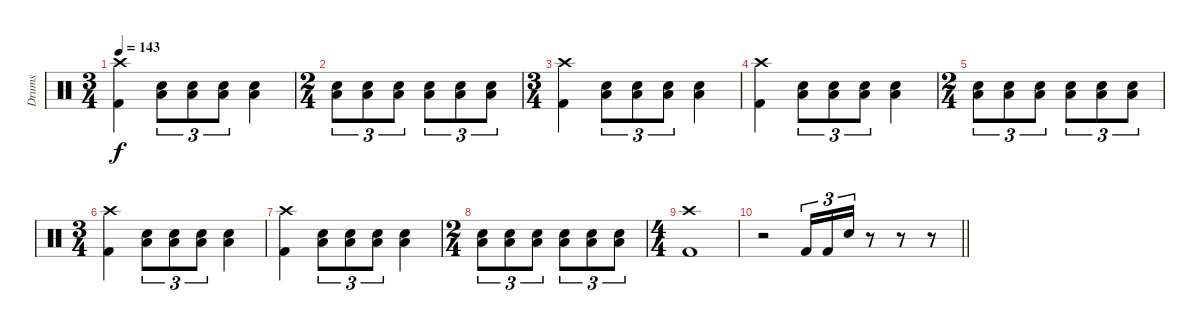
\track ("Drums" "Drums") {instrument percussion}
\staff {score}
\articulation defaults
\ts (3 4)
\tempo 143
\clef neutral
\ks c
("Crash high (hit)" "Kick (hit) 2").4{dy f} ("Electric Snare (hit)" "Low Floor Tom (hit)").8{tu (3 2)} ("Electric Snare (hit)" "Low Floor Tom (hit)").8{tu (3 2)} ("Electric Snare (hit)" "Low Floor Tom (hit)").8{tu (3 2)} ("Electric Snare (hit)" "Low Floor Tom (hit)").4 |
\ts (2 4)
("Electric Snare (hit)" "Low Floor Tom (hit)").8{tu (3 2)} ("Electric Snare (hit)" "Low Floor Tom (hit)").8{tu (3 2)} ("Electric Snare (hit)" "Low Floor Tom (hit)").8{tu (3 2)} ("Electric Snare (hit)" "Low Floor Tom (hit)").8{tu (3 2)} ("Electric Snare (hit)" "Low Floor Tom (hit)").8{tu (3 2)} ("Electric Snare (hit)" "Low Floor Tom (hit)").8{tu (3 2)} |
\ts (3 4)
("Crash high (hit)" "Kick (hit) 2").4 ("Electric Snare (hit)" "Low Floor Tom (hit)").8{tu (3 2)} ("Electric Snare (hit)" "Low Floor Tom (hit)").8{tu (3 2)} ("Electric Snare (hit)" "Low Floor Tom (hit)").8{tu (3 2)} ("Electric Snare (hit)" "Low Floor Tom (hit)").4 |
("Crash high (hit)" "Kick (hit) 2").4 ("Electric Snare (hit)" "Low Floor Tom (hit)").8{tu (3 2)} ("Electric Snare (hit)" "Low Floor Tom (hit)").8{tu (3 2)} ("Electric Snare (hit)" "Low Floor Tom (hit)").8{tu (3 2)} ("Electric Snare (hit)" "Low Floor Tom (hit)").4 |
\ts (2 4)
("Electric Snare (hit)" "Low Floor Tom (hit)").8{tu (3 2)} ("Electric Snare (hit)" "Low Floor Tom (hit)").8{tu (3 2)} ("Electric Snare (hit)" "Low Floor Tom (hit)").8{tu (3 2)} ("Electric Snare (hit)" "Low Floor Tom (hit)").8{tu (3 2)} ("Electric Snare (hit)" "Low Floor Tom (hit)").8{tu (3 2)} ("Electric Snare (hit)" "Low Floor Tom (hit)").8{tu (3 2)} |
\ts (3 4)
("Crash high (hit)" "Kick (hit) 2").4 ("Electric Snare (hit)" "Low Floor Tom (hit)").8{tu (3 2)} ("Electric Snare (hit)" "Low Floor Tom (hit)").8{tu (3 2)} ("Electric Snare (hit)" "Low Floor Tom (hit)").8{tu (3 2)} ("Electric Snare (hit)" "Low Floor Tom (hit)").4 |
("Crash high (hit)" "Kick (hit) 2").4 ("Electric Snare (hit)" "Low Floor Tom (hit)").8{tu (3 2)} ("Electric Snare (hit)" "Low Floor Tom (hit)").8{tu (3 2)} ("Electric Snare (hit)" "Low Floor Tom (hit)").8{tu (3 2)} ("Electric Snare (hit)" "Low Floor Tom (hit)").4 |
\ts (2 4)
("Electric Snare (hit)" "Low Floor Tom (hit)").8{tu (3 2)} ("Electric Snare (hit)" "Low Floor Tom (hit)").8{tu (3 2)} ("Electric Snare (hit)" "Low Floor Tom (hit)").8{tu (3 2)} ("Electric Snare (hit)" "Low Floor Tom (hit)").8{tu (3 2)} ("Electric Snare (hit)" "Low Floor Tom (hit)").8{tu (3 2)} ("Electric Snare (hit)" "Low Floor Tom (hit)").8{tu (3 2)} |
\ts (4 4)
("Crash high (hit)" "Kick (hit) 2").1 |
\barLineRight lightlight
r.2 "Kick (hit) 2".16{tu (3 2)} "Kick (hit) 2".16{tu (3 2)} "Electric Snare (hit)".16{tu (3 2)} r.8 r.8 r.8
